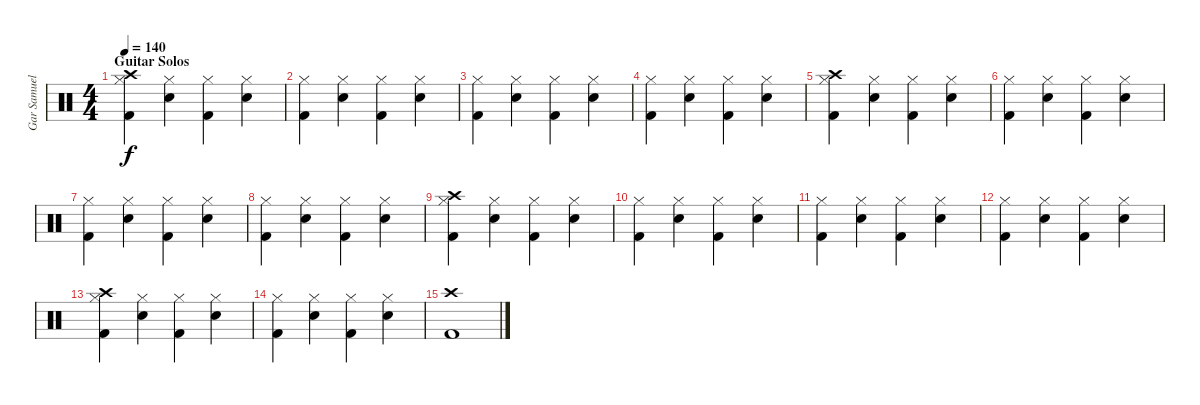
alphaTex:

\track ("Gar Samuelson (Drums)" "Gar Samuel") {instrument percussion}
\staff {score}
\articulation defaults
\ts (4 4)
\section ("" "Guitar Solos")
\tempo 140
\clef neutral
\ks c
("Crash high (hit)" "Hi-Hat (closed)" "Kick (hit) 2").4{dy f} ("Electric Snare (hit)" "Hi-Hat (closed)").4 ("Hi-Hat (closed)" "Kick (hit) 2").4 ("Electric Snare (hit)" "Hi-Hat (closed)").4 |
("Hi-Hat (closed)" "Kick (hit) 2").4 ("Electric Snare (hit)" "Hi-Hat (closed)").4 ("Hi-Hat (closed)" "Kick (hit) 2").4 ("Electric Snare (hit)" "Hi-Hat (closed)").4 |
("Hi-Hat (closed)" "Kick (hit) 2").4 ("Electric Snare (hit)" "Hi-Hat (closed)").4 ("Hi-Hat (closed)" "Kick (hit) 2").4 ("Electric Snare (hit)" "Hi-Hat (closed)").4 |
("Hi-Hat (closed)" "Kick (hit) 2").4 ("Electric Snare (hit)" "Hi-Hat (closed)").4 ("Hi-Hat (closed)" "Kick (hit) 2").4 ("Electric Snare (hit)" "Hi-Hat (closed)").4 |
\section ("" "")
("Crash high (hit)" "Hi-Hat (closed)" "Kick (hit) 2").4 ("Electric Snare (hit)" "Hi-Hat (closed)").4 ("Hi-Hat (closed)" "Kick (hit) 2").4 ("Electric Snare (hit)" "Hi-Hat (closed)").4 |
("Hi-Hat (closed)" "Kick (hit) 2").4 ("Electric Snare (hit)" "Hi-Hat (closed)").4 ("Hi-Hat (closed)" "Kick (hit) 2").4 ("Electric Snare (hit)" "Hi-Hat (closed)").4 |
("Hi-Hat (closed)" "Kick (hit) 2").4 ("Electric Snare (hit)" "Hi-Hat (closed)").4 ("Hi-Hat (closed)" "Kick (hit) 2").4 ("Electric Snare (hit)" "Hi-Hat (closed)").4 |
("Hi-Hat (closed)" "Kick (hit) 2").4 ("Electric Snare (hit)" "Hi-Hat (closed)").4 ("Hi-Hat (closed)" "Kick (hit) 2").4 ("Electric Snare (hit)" "Hi-Hat (closed)").4 |
\section ("" "")
("Crash high (hit)" "Hi-Hat (closed)" "Kick (hit) 2").4 ("Electric Snare (hit)" "Hi-Hat (closed)").4 ("Hi-Hat (closed)" "Kick (hit) 2").4 ("Electric Snare (hit)" "Hi-Hat (closed)").4 |
("Hi-Hat (closed)" "Kick (hit) 2").4 ("Electric Snare (hit)" "Hi-Hat (closed)").4 ("Hi-Hat (closed)" "Kick (hit) 2").4 ("Electric Snare (hit)" "Hi-Hat (closed)").4 |
("Hi-Hat (closed)" "Kick (hit) 2").4 ("Electric Snare (hit)" "Hi-Hat (closed)").4 ("Hi-Hat (closed)" "Kick (hit) 2").4 ("Electric Snare (hit)" "Hi-Hat (closed)").4 |
("Hi-Hat (closed)" "Kick (hit) 2").4 ("Electric Snare (hit)" "Hi-Hat (closed)").4 ("Hi-Hat (closed)" "Kick (hit) 2").4 ("Electric Snare (hit)" "Hi-Hat (closed)").4 |
\section ("" "")
("Crash high (hit)" "Hi-Hat (closed)" "Kick (hit) 2").4 ("Electric Snare (hit)" "Hi-Hat (closed)").4 ("Hi-Hat (closed)" "Kick (hit) 2").4 ("Electric Snare (hit)" "Hi-Hat (closed)").4 |
("Hi-Hat (closed)" "Kick (hit) 2").4 ("Electric Snare (hit)" "Hi-Hat (closed)").4 ("Hi-Hat (closed)" "Kick (hit) 2").4 ("Electric Snare (hit)" "Hi-Hat (closed)").4 |
("Crash high (hit)" "Kick (hit) 2").1
